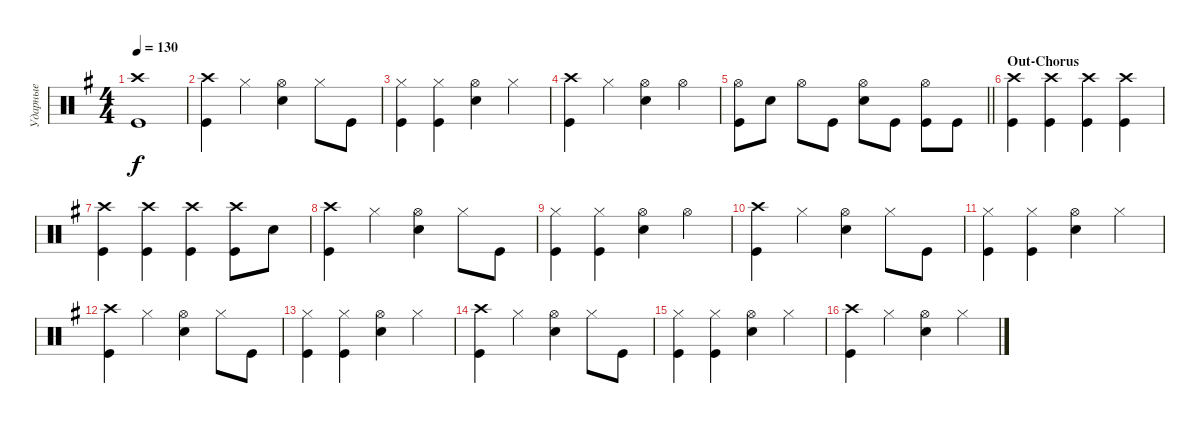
\track ("Ударные" "Ударные") {instrument percussion}
\staff {score}
\articulation defaults
\ts (4 4)
\tempo 130
\clef neutral
\ks eminor
("Kick (hit)" "Crash high (hit)").1{dy f} |
("Kick (hit)" "Crash high (hit)").4 "Hi-Hat (closed)".4 ("Hi-Hat (open)" "Snare (hit) 2").4 "Hi-Hat (closed)".8 "Kick (hit)".8 |
("Hi-Hat (closed)" "Kick (hit)").4 ("Hi-Hat (closed)" "Kick (hit)").4 ("Hi-Hat (open)" "Snare (hit) 2").4 "Hi-Hat (closed)".4 |
("Crash high (hit)" "Kick (hit)").4 "Hi-Hat (closed)".4 ("Hi-Hat (open)" "Snare (hit) 2").4 "Hi-Hat (open)".4 |
\barLineRight lightlight
("Kick (hit)" "Hi-Hat (open)").8 "Snare (hit) 2".8 "Hi-Hat (open)".8 "Kick (hit)".8 ("Snare (hit) 2" "Hi-Hat (open)").8 "Kick (hit)".8 ("Kick (hit)" "Hi-Hat (open)").8 "Kick (hit)".8 |
\section ("" "Out-Chorus")
("Kick (hit)" "Crash high (hit)").4 ("Crash high (hit)" "Kick (hit)").4 ("Crash high (hit)" "Kick (hit)").4 ("Crash high (hit)" "Kick (hit)").4 |
("Crash high (hit)" "Kick (hit)").4 ("Crash high (hit)" "Kick (hit)").4 ("Crash high (hit)" "Kick (hit)").4 ("Crash high (hit)" "Kick (hit)").8 "Snare (hit) 2".8 |
("Crash high (hit)" "Kick (hit)").4 "Hi-Hat (closed)".4 ("Hi-Hat (open)" "Snare (hit) 2").4 "Hi-Hat (closed)".8 "Kick (hit)".8 |
("Hi-Hat (closed)" "Kick (hit)").4 ("Hi-Hat (closed)" "Kick (hit)").4 ("Hi-Hat (open)" "Snare (hit) 2").4 "Hi-Hat (open)".4 |
("Kick (hit)" "Crash high (hit)").4 "Hi-Hat (closed)".4 ("Hi-Hat (open)" "Snare (hit) 2").4 "Hi-Hat (closed)".8 "Kick (hit)".8 |
("Hi-Hat (closed)" "Kick (hit)").4 ("Hi-Hat (closed)" "Kick (hit)").4 ("Hi-Hat (open)" "Snare (hit) 2").4 "Hi-Hat (closed)".4 |
("Crash high (hit)" "Kick (hit)").4 "Hi-Hat (closed)".4 ("Hi-Hat (open)" "Snare (hit) 2").4 "Hi-Hat (closed)".8 "Kick (hit)".8 |
("Hi-Hat (closed)" "Kick (hit)").4 ("Hi-Hat (closed)" "Kick (hit)").4 ("Hi-Hat (open)" "Snare (hit) 2").4 "Hi-Hat (closed)".4 |
("Kick (hit)" "Crash high (hit)").4 "Hi-Hat (closed)".4 ("Hi-Hat (open)" "Snare (hit) 2").4 "Hi-Hat (closed)".8 "Kick (hit)".8 |
("Hi-Hat (closed)" "Kick (hit)").4 ("Hi-Hat (closed)" "Kick (hit)").4 ("Hi-Hat (open)" "Snare (hit) 2").4 "Hi-Hat (closed)".4 |
("Crash high (hit)" "Kick (hit)").4 "Hi-Hat (closed)".4 ("Hi-Hat (open)" "Snare (hit) 2").4 "Hi-Hat (closed)".4
